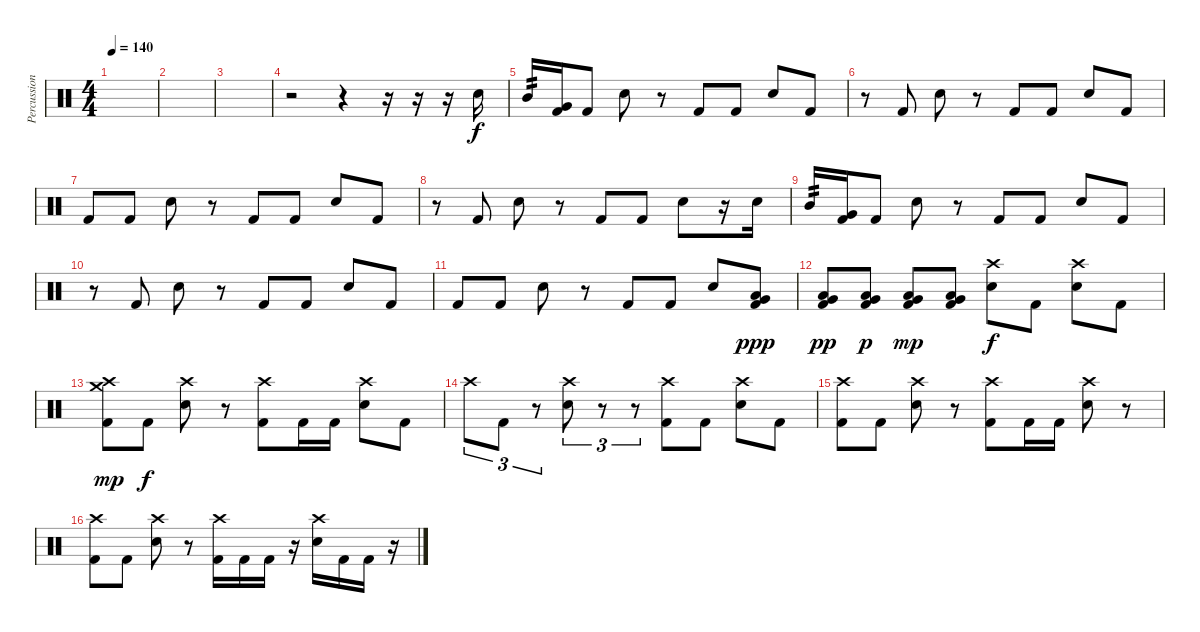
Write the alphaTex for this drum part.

\track ("Percussion" "Percussion") {instrument percussion}
\staff {score}
\articulation defaults
\ts (4 4)
\tempo 140
\clef neutral
\ks c
|
|
|
r.2 r.4 r.16 r.16 r.16 "Snare (hit) 2".16 |
"Mid Tom (hit)".16{tp 2} ("Very Low Tom (hit)" "Kick (hit) 2").16 "Kick (hit) 2".8 "Snare (hit) 2".8 r.8 "Kick (hit) 2".8 "Kick (hit) 2".8 "Snare (hit) 2".8 "Kick (hit) 2".8 |
r.8 "Kick (hit) 2".8 "Snare (hit) 2".8 r.8 "Kick (hit) 2".8 "Kick (hit) 2".8 "Snare (hit) 2".8 "Kick (hit) 2".8 |
"Kick (hit) 2".8 "Kick (hit) 2".8 "Snare (hit) 2".8 r.8 "Kick (hit) 2".8 "Kick (hit) 2".8 "Snare (hit) 2".8 "Kick (hit) 2".8 |
r.8 "Kick (hit) 2".8 "Snare (hit) 2".8 r.8 "Kick (hit) 2".8 "Kick (hit) 2".8 "Snare (hit) 2".8 r.16 "Snare (hit) 2".16 |
"Mid Tom (hit)".16{tp 2} ("Very Low Tom (hit)" "Kick (hit) 2").16 "Kick (hit) 2".8 "Snare (hit) 2".8 r.8 "Kick (hit) 2".8 "Kick (hit) 2".8 "Snare (hit) 2".8 "Kick (hit) 2".8 |
r.8 "Kick (hit) 2".8 "Snare (hit) 2".8 r.8 "Kick (hit) 2".8 "Kick (hit) 2".8 "Snare (hit) 2".8 "Kick (hit) 2".8 |
"Kick (hit) 2".8 "Kick (hit) 2".8 "Snare (hit) 2".8 r.8 "Kick (hit) 2".8 "Kick (hit) 2".8 "Snare (hit) 2".8 ("Very Low Tom (hit)" "Low Tom (hit)" "Kick (hit) 2").8{dy ppp} |
("Very Low Tom (hit)" "Low Tom (hit)" "Kick (hit) 2").8{dy pp} ("Very Low Tom (hit)" "Low Tom (hit)" "Kick (hit) 2").8{dy p} ("Very Low Tom (hit)" "Low Tom (hit)" "Kick (hit) 2").8{dy mp} ("Very Low Tom (hit)" "Low Tom (hit)" "Kick (hit) 2").8 ("Crash high (hit)" "Snare (hit) 2").8{dy f} "Kick (hit) 2".8 ("Crash high (hit)" "Snare (hit) 2").8 "Kick (hit) 2".8 |
("Crash high (hit)" "Crash medium (hit)" "Kick (hit) 2").8{dy mp} "Kick (hit) 2".8{dy f} ("Crash high (hit)" "Snare (hit) 2").8 r.8 ("Crash high (hit)" "Kick (hit) 2").8 "Kick (hit) 2".16 "Kick (hit) 2".16 ("Crash high (hit)" "Snare (hit) 2").8 "Kick (hit) 2".8 |
"Crash high (hit)".8{tu (3 2)} "Kick (hit) 2".8{tu (3 2)} r.8{tu (3 2)} ("Crash high (hit)" "Snare (hit) 2").8{tu (3 2)} r.8{tu (3 2)} r.8{tu (3 2)} ("Crash high (hit)" "Kick (hit) 2").8 "Kick (hit) 2".8 ("Crash high (hit)" "Snare (hit) 2").8 "Kick (hit) 2".8 |
("Crash high (hit)" "Kick (hit) 2").8 "Kick (hit) 2".8 ("Crash high (hit)" "Snare (hit) 2").8 r.8 ("Crash high (hit)" "Kick (hit) 2").8 "Kick (hit) 2".16 "Kick (hit) 2".16 ("Crash high (hit)" "Snare (hit) 2").8 r.8 |
("Crash high (hit)" "Kick (hit) 2").8 "Kick (hit) 2".8 ("Crash high (hit)" "Snare (hit) 2").8 r.8 ("Crash high (hit)" "Kick (hit) 2").16 "Kick (hit) 2".16 "Kick (hit) 2".16 r.16 ("Crash high (hit)" "Snare (hit) 2").16 "Kick (hit) 2".16 "Kick (hit) 2".16 r.16
